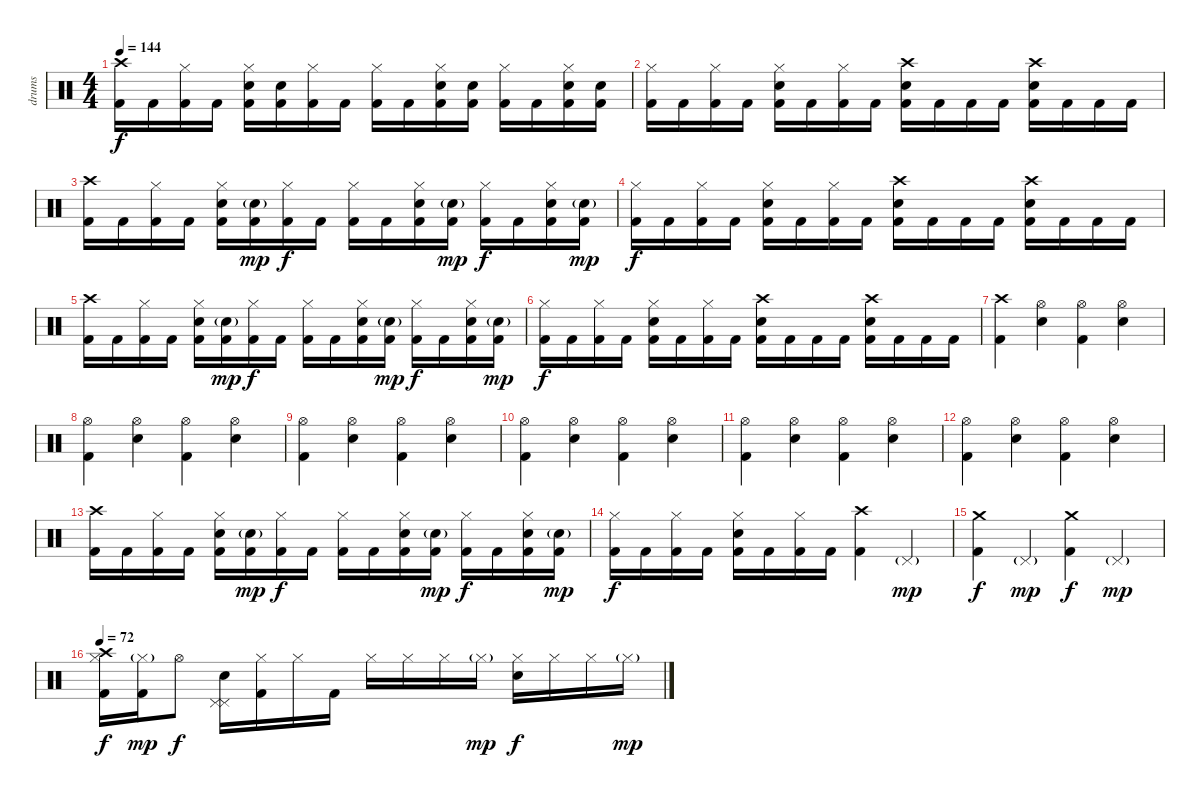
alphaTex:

\track ("drums" "drums") {instrument percussion}
\staff {score}
\articulation defaults
\ts (4 4)
\tempo 144
\clef neutral
\ks c
("Crash high (hit)" "Kick (hit) 2").16{dy f} "Kick (hit) 2".16 ("Hi-Hat (closed)" "Kick (hit) 2").16 "Kick (hit) 2".16 ("Hi-Hat (closed)" "Electric Snare (hit)" "Kick (hit) 2").16 ("Electric Snare (hit)" "Kick (hit) 2").16 ("Hi-Hat (closed)" "Kick (hit) 2").16 "Kick (hit) 2".16 ("Hi-Hat (closed)" "Kick (hit) 2").16 "Kick (hit) 2".16 ("Hi-Hat (closed)" "Electric Snare (hit)" "Kick (hit) 2").16 ("Electric Snare (hit)" "Kick (hit) 2").16 ("Hi-Hat (closed)" "Kick (hit) 2").16 "Kick (hit) 2".16 ("Hi-Hat (closed)" "Electric Snare (hit)" "Kick (hit) 2").16 ("Electric Snare (hit)" "Kick (hit) 2").16 |
("Hi-Hat (closed)" "Kick (hit) 2").16 "Kick (hit) 2".16 ("Hi-Hat (closed)" "Kick (hit) 2").16 "Kick (hit) 2".16 ("Hi-Hat (closed)" "Electric Snare (hit)" "Kick (hit) 2").16 "Kick (hit) 2".16 ("Hi-Hat (closed)" "Kick (hit) 2").16 "Kick (hit) 2".16 ("Crash high (hit)" "Electric Snare (hit)" "Kick (hit) 2").16 "Kick (hit) 2".16 "Kick (hit) 2".16 "Kick (hit) 2".16 ("Crash high (hit)" "Electric Snare (hit)" "Kick (hit) 2").16 "Kick (hit) 2".16 "Kick (hit) 2".16 "Kick (hit) 2".16 |
("Crash high (hit)" "Kick (hit) 2").16 "Kick (hit) 2".16 ("Hi-Hat (closed)" "Kick (hit) 2").16 "Kick (hit) 2".16 ("Hi-Hat (closed)" "Electric Snare (hit)" "Kick (hit) 2").16 ("Electric Snare (hit)"{g} "Kick (hit) 2").16{dy mp} ("Hi-Hat (closed)" "Kick (hit) 2").16{dy f} "Kick (hit) 2".16 ("Hi-Hat (closed)" "Kick (hit) 2").16 "Kick (hit) 2".16 ("Hi-Hat (closed)" "Electric Snare (hit)" "Kick (hit) 2").16 ("Electric Snare (hit)"{g} "Kick (hit) 2").16{dy mp} ("Hi-Hat (closed)" "Kick (hit) 2").16{dy f} "Kick (hit) 2".16 ("Hi-Hat (closed)" "Electric Snare (hit)" "Kick (hit) 2").16 ("Electric Snare (hit)"{g} "Kick (hit) 2").16{dy mp} |
("Hi-Hat (closed)" "Kick (hit) 2").16{dy f} "Kick (hit) 2".16 ("Hi-Hat (closed)" "Kick (hit) 2").16 "Kick (hit) 2".16 ("Hi-Hat (closed)" "Electric Snare (hit)" "Kick (hit) 2").16 "Kick (hit) 2".16 ("Hi-Hat (closed)" "Kick (hit) 2").16 "Kick (hit) 2".16 ("Crash high (hit)" "Electric Snare (hit)" "Kick (hit) 2").16 "Kick (hit) 2".16 "Kick (hit) 2".16 "Kick (hit) 2".16 ("Crash high (hit)" "Electric Snare (hit)" "Kick (hit) 2").16 "Kick (hit) 2".16 "Kick (hit) 2".16 "Kick (hit) 2".16 |
("Crash high (hit)" "Kick (hit) 2").16 "Kick (hit) 2".16 ("Hi-Hat (closed)" "Kick (hit) 2").16 "Kick (hit) 2".16 ("Hi-Hat (closed)" "Electric Snare (hit)" "Kick (hit) 2").16 ("Electric Snare (hit)"{g} "Kick (hit) 2").16{dy mp} ("Hi-Hat (closed)" "Kick (hit) 2").16{dy f} "Kick (hit) 2".16 ("Hi-Hat (closed)" "Kick (hit) 2").16 "Kick (hit) 2".16 ("Hi-Hat (closed)" "Electric Snare (hit)" "Kick (hit) 2").16 ("Electric Snare (hit)"{g} "Kick (hit) 2").16{dy mp} ("Hi-Hat (closed)" "Kick (hit) 2").16{dy f} "Kick (hit) 2".16 ("Hi-Hat (closed)" "Electric Snare (hit)" "Kick (hit) 2").16 ("Electric Snare (hit)"{g} "Kick (hit) 2").16{dy mp} |
("Hi-Hat (closed)" "Kick (hit) 2").16{dy f} "Kick (hit) 2".16 ("Hi-Hat (closed)" "Kick (hit) 2").16 "Kick (hit) 2".16 ("Hi-Hat (closed)" "Electric Snare (hit)" "Kick (hit) 2").16 "Kick (hit) 2".16 ("Hi-Hat (closed)" "Kick (hit) 2").16 "Kick (hit) 2".16 ("Crash high (hit)" "Electric Snare (hit)" "Kick (hit) 2").16 "Kick (hit) 2".16 "Kick (hit) 2".16 "Kick (hit) 2".16 ("Crash high (hit)" "Electric Snare (hit)" "Kick (hit) 2").16 "Kick (hit) 2".16 "Kick (hit) 2".16 "Kick (hit) 2".16 |
("Crash high (hit)" "Kick (hit) 2").4 ("Hi-Hat (open)" "Electric Snare (hit)").4 ("Hi-Hat (open)" "Kick (hit) 2").4 ("Hi-Hat (open)" "Electric Snare (hit)").4 |
("Hi-Hat (open)" "Kick (hit) 2").4 ("Hi-Hat (open)" "Electric Snare (hit)").4 ("Hi-Hat (open)" "Kick (hit) 2").4 ("Hi-Hat (open)" "Electric Snare (hit)").4 |
("Hi-Hat (open)" "Kick (hit) 2").4 ("Hi-Hat (open)" "Electric Snare (hit)").4 ("Hi-Hat (open)" "Kick (hit) 2").4 ("Hi-Hat (open)" "Electric Snare (hit)").4 |
("Hi-Hat (open)" "Kick (hit) 2").4 ("Hi-Hat (open)" "Electric Snare (hit)").4 ("Hi-Hat (open)" "Kick (hit) 2").4 ("Hi-Hat (open)" "Electric Snare (hit)").4 |
("Hi-Hat (open)" "Kick (hit) 2").4 ("Hi-Hat (open)" "Electric Snare (hit)").4 ("Hi-Hat (open)" "Kick (hit) 2").4 ("Hi-Hat (open)" "Electric Snare (hit)").4 |
("Hi-Hat (open)" "Kick (hit) 2").4 ("Hi-Hat (open)" "Electric Snare (hit)").4 ("Hi-Hat (open)" "Kick (hit) 2").4 ("Hi-Hat (open)" "Electric Snare (hit)").4 |
("Crash high (hit)" "Kick (hit) 2").16 "Kick (hit) 2".16 ("Hi-Hat (closed)" "Kick (hit) 2").16 "Kick (hit) 2".16 ("Hi-Hat (closed)" "Electric Snare (hit)" "Kick (hit) 2").16 ("Electric Snare (hit)"{g} "Kick (hit) 2").16{dy mp} ("Hi-Hat (closed)" "Kick (hit) 2").16{dy f} "Kick (hit) 2".16 ("Hi-Hat (closed)" "Kick (hit) 2").16 "Kick (hit) 2".16 ("Hi-Hat (closed)" "Electric Snare (hit)" "Kick (hit) 2").16 ("Electric Snare (hit)"{g} "Kick (hit) 2").16{dy mp} ("Hi-Hat (closed)" "Kick (hit) 2").16{dy f} "Kick (hit) 2".16 ("Hi-Hat (closed)" "Electric Snare (hit)" "Kick (hit) 2").16 ("Electric Snare (hit)"{g} "Kick (hit) 2").16{dy mp} |
("Hi-Hat (closed)" "Kick (hit) 2").16{dy f} "Kick (hit) 2".16 ("Hi-Hat (closed)" "Kick (hit) 2").16 "Kick (hit) 2".16 ("Hi-Hat (closed)" "Electric Snare (hit)" "Kick (hit) 2").16 "Kick (hit) 2".16 ("Hi-Hat (closed)" "Kick (hit) 2").16 "Kick (hit) 2".16 ("Crash high (hit)" "Kick (hit) 2").4 "Pedal Hi-Hat (hit)"{g}.4{dy mp} |
("Crash medium (hit)" "Kick (hit) 2").4{dy f} "Pedal Hi-Hat (hit)"{g}.4{dy mp} ("Crash medium (hit)" "Kick (hit) 2").4{dy f} "Pedal Hi-Hat (hit)"{g}.4{dy mp} |
\tempo 72
("Hi-Hat (closed)" "Crash high (hit)" "Kick (hit) 2").16{dy f volume 13} ("Hi-Hat (closed)"{g} "Kick (hit) 2").16{dy mp} "Hi-Hat (open)".8{dy f} ("Pedal Hi-Hat (hit)" "Electric Snare (hit)" "Pedal Hi-Hat (hit)").16 ("Hi-Hat (closed)" "Kick (hit) 2").16 "Hi-Hat (closed)".16 "Kick (hit) 2".16 "Hi-Hat (closed)".16 "Hi-Hat (closed)".16 "Hi-Hat (closed)".16 "Hi-Hat (closed)"{g}.16{dy mp} ("Hi-Hat (closed)" "Electric Snare (hit)").16{dy f} "Hi-Hat (closed)".16 "Hi-Hat (closed)".16 "Hi-Hat (closed)"{g}.16{dy mp}
